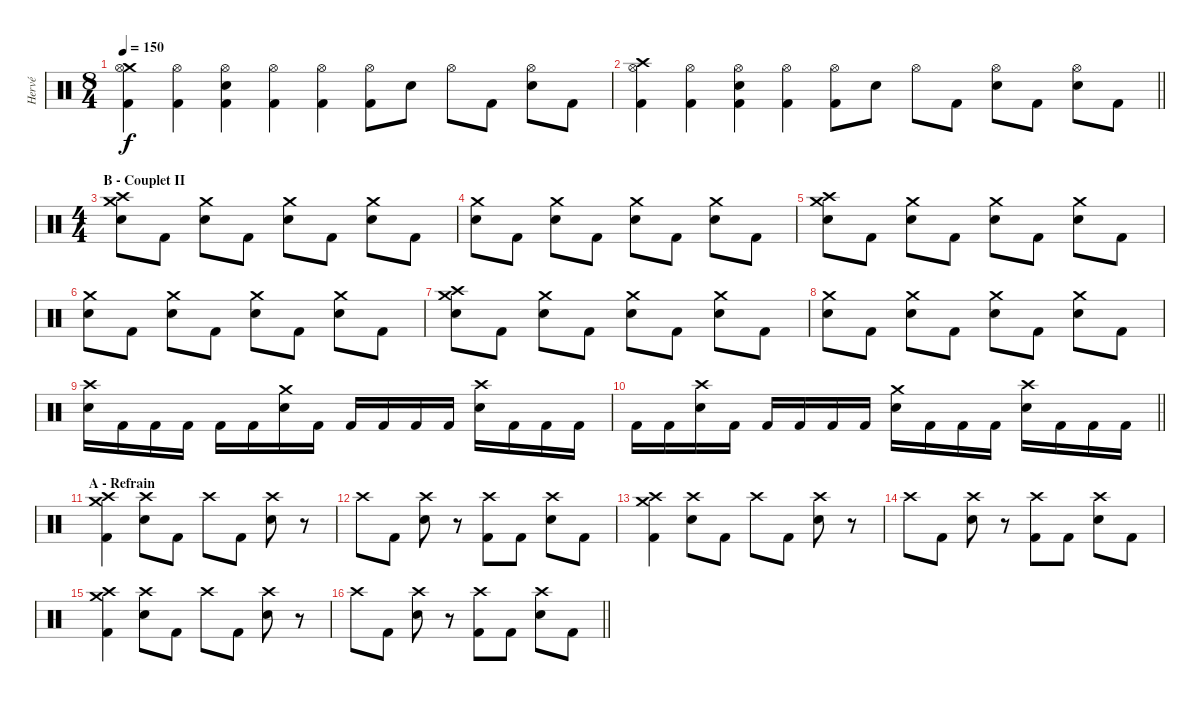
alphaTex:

\track ("Hervé" "Hervé") {instrument percussion}
\staff {score}
\articulation defaults
\ts (8 4)
\tempo 150
\clef neutral
\ks c
("Crash medium (hit)" "Hi-Hat (open)" "Kick (hit) 2").4{dy f} ("Hi-Hat (open)" "Kick (hit) 2").4 ("Hi-Hat (open)" "Snare (hit) 2" "Kick (hit) 2").4 ("Hi-Hat (open)" "Kick (hit) 2").4 ("Hi-Hat (open)" "Kick (hit) 2").4 ("Hi-Hat (open)" "Kick (hit) 2").8 "Snare (hit) 2".8 "Hi-Hat (open)".8 "Kick (hit) 2".8 ("Hi-Hat (open)" "Snare (hit) 2").8 "Kick (hit) 2".8 |
\barLineRight lightlight
("Crash high (hit)" "Hi-Hat (open)" "Kick (hit) 2").4 ("Hi-Hat (open)" "Kick (hit) 2").4 ("Hi-Hat (open)" "Snare (hit) 2" "Kick (hit) 2").4 ("Hi-Hat (open)" "Kick (hit) 2").4 ("Hi-Hat (open)" "Kick (hit) 2").8 "Snare (hit) 2".8 "Hi-Hat (open)".8 "Kick (hit) 2".8 ("Hi-Hat (open)" "Snare (hit) 2").8 "Kick (hit) 2".8 ("Hi-Hat (open)" "Snare (hit) 2").8 "Kick (hit) 2".8 |
\ts (4 4)
\section ("" "B - Couplet II")
("Crash high (hit)" "Crash medium (hit)" "Snare (hit) 2").8 "Kick (hit) 2".8 ("Crash medium (hit)" "Snare (hit) 2").8 "Kick (hit) 2".8 ("Crash medium (hit)" "Snare (hit) 2").8 "Kick (hit) 2".8 ("Crash medium (hit)" "Snare (hit) 2").8 "Kick (hit) 2".8 |
("Crash medium (hit)" "Snare (hit) 2").8 "Kick (hit) 2".8 ("Crash medium (hit)" "Snare (hit) 2").8 "Kick (hit) 2".8 ("Crash medium (hit)" "Snare (hit) 2").8 "Kick (hit) 2".8 ("Crash medium (hit)" "Snare (hit) 2").8 "Kick (hit) 2".8 |
("Crash high (hit)" "Crash medium (hit)" "Snare (hit) 2").8 "Kick (hit) 2".8 ("Crash medium (hit)" "Snare (hit) 2").8 "Kick (hit) 2".8 ("Crash medium (hit)" "Snare (hit) 2").8 "Kick (hit) 2".8 ("Crash medium (hit)" "Snare (hit) 2").8 "Kick (hit) 2".8 |
("Crash medium (hit)" "Snare (hit) 2").8 "Kick (hit) 2".8 ("Crash medium (hit)" "Snare (hit) 2").8 "Kick (hit) 2".8 ("Crash medium (hit)" "Snare (hit) 2").8 "Kick (hit) 2".8 ("Crash medium (hit)" "Snare (hit) 2").8 "Kick (hit) 2".8 |
("Crash high (hit)" "Crash medium (hit)" "Snare (hit) 2").8 "Kick (hit) 2".8 ("Crash medium (hit)" "Snare (hit) 2").8 "Kick (hit) 2".8 ("Crash medium (hit)" "Snare (hit) 2").8 "Kick (hit) 2".8 ("Crash medium (hit)" "Snare (hit) 2").8 "Kick (hit) 2".8 |
("Crash medium (hit)" "Snare (hit) 2").8 "Kick (hit) 2".8 ("Crash medium (hit)" "Snare (hit) 2").8 "Kick (hit) 2".8 ("Crash medium (hit)" "Snare (hit) 2").8 "Kick (hit) 2".8 ("Crash medium (hit)" "Snare (hit) 2").8 "Kick (hit) 2".8 |
("Crash high (hit)" "Snare (hit) 2").16 "Kick (hit) 2".16 "Kick (hit) 2".16 "Kick (hit) 2".16 "Kick (hit) 2".16 "Kick (hit) 2".16 ("Crash medium (hit)" "Snare (hit) 2").16 "Kick (hit) 2".16 "Kick (hit) 2".16 "Kick (hit) 2".16 "Kick (hit) 2".16 "Kick (hit) 2".16 ("Crash high (hit)" "Snare (hit) 2").16 "Kick (hit) 2".16 "Kick (hit) 2".16 "Kick (hit) 2".16 |
\barLineRight lightlight "Kick (hit) 2".16 "Kick (hit) 2".16
("Crash high (hit)" "Snare (hit) 2").16 "Kick (hit) 2".16 "Kick (hit) 2".16 "Kick (hit) 2".16 "Kick (hit) 2".16 "Kick (hit) 2".16 ("Crash medium (hit)" "Snare (hit) 2").16 "Kick (hit) 2".16 "Kick (hit) 2".16 "Kick (hit) 2".16 ("Crash high (hit)" "Snare (hit) 2").16 "Kick (hit) 2".16 "Kick (hit) 2".16 "Kick (hit) 2".16 |
\section ("" "A - Refrain")
("Crash medium (hit)" "Crash high (hit)" "Kick (hit) 2").4 ("Crash high (hit)" "Snare (hit) 2").8 "Kick (hit) 2".8 "Crash high (hit)".8 "Kick (hit) 2".8 ("Crash high (hit)" "Snare (hit) 2").8 r.8 |
"Crash high (hit)".8 "Kick (hit) 2".8 ("Crash high (hit)" "Snare (hit) 2").8 r.8 ("Crash high (hit)" "Kick (hit) 2").8 "Kick (hit) 2".8 ("Crash high (hit)" "Snare (hit) 2").8 "Kick (hit) 2".8 |
("Crash medium (hit)" "Crash high (hit)" "Kick (hit) 2").4 ("Crash high (hit)" "Snare (hit) 2").8 "Kick (hit) 2".8 "Crash high (hit)".8 "Kick (hit) 2".8 ("Crash high (hit)" "Snare (hit) 2").8 r.8 |
"Crash high (hit)".8 "Kick (hit) 2".8 ("Crash high (hit)" "Snare (hit) 2").8 r.8 ("Crash high (hit)" "Kick (hit) 2").8 "Kick (hit) 2".8 ("Crash high (hit)" "Snare (hit) 2").8 "Kick (hit) 2".8 |
("Crash medium (hit)" "Crash high (hit)" "Kick (hit) 2").4 ("Crash high (hit)" "Snare (hit) 2").8 "Kick (hit) 2".8 "Crash high (hit)".8 "Kick (hit) 2".8 ("Crash high (hit)" "Snare (hit) 2").8 r.8 |
\barLineRight lightlight "Crash high (hit)".8 "Kick (hit) 2".8
("Crash high (hit)" "Snare (hit) 2").8 r.8 ("Crash high (hit)" "Kick (hit) 2").8 "Kick (hit) 2".8 ("Crash high (hit)" "Snare (hit) 2").8 "Kick (hit) 2".8
